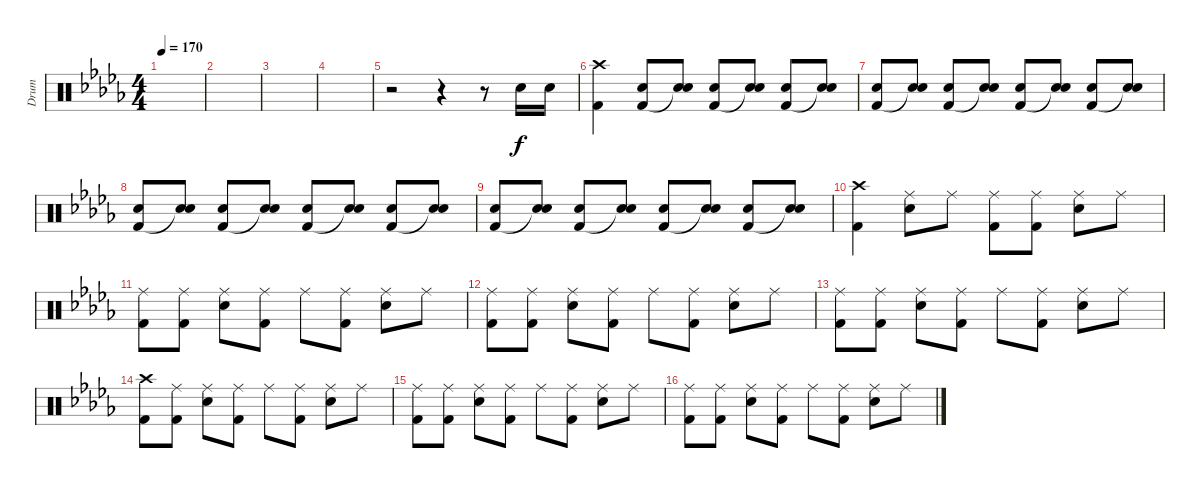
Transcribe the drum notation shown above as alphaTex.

\track ("Drum" "Drum") {instrument percussion}
\staff {score}
\articulation defaults
\ts (4 4)
\tempo 170
\clef neutral
\ks db
|
|
|
|
r.2 r.4 r.8 "Electric Snare (hit)".16 "Electric Snare (hit)".16 |
("Crash high (hit)" "Kick (hit) 2").4 ("Electric Snare (hit)" "Kick (hit) 2").8 ("Electric Snare (hit)" "Snare (hit)"{t}).8 ("Electric Snare (hit)" "Kick (hit) 2").8 ("Electric Snare (hit)" "Snare (hit)"{t}).8 ("Electric Snare (hit)" "Kick (hit) 2").8 ("Electric Snare (hit)" "Snare (hit)"{t}).8 |
("Electric Snare (hit)" "Kick (hit) 2").8 ("Electric Snare (hit)" "Snare (hit)"{t}).8 ("Electric Snare (hit)" "Kick (hit) 2").8 ("Electric Snare (hit)" "Snare (hit)"{t}).8 ("Electric Snare (hit)" "Kick (hit) 2").8 ("Electric Snare (hit)" "Snare (hit)"{t}).8 ("Electric Snare (hit)" "Kick (hit) 2").8 ("Electric Snare (hit)" "Snare (hit)"{t}).8 |
("Electric Snare (hit)" "Kick (hit) 2").8 ("Electric Snare (hit)" "Snare (hit)"{t}).8 ("Electric Snare (hit)" "Kick (hit) 2").8 ("Electric Snare (hit)" "Snare (hit)"{t}).8 ("Electric Snare (hit)" "Kick (hit) 2").8 ("Electric Snare (hit)" "Snare (hit)"{t}).8 ("Electric Snare (hit)" "Kick (hit) 2").8 ("Electric Snare (hit)" "Snare (hit)"{t}).8 |
("Electric Snare (hit)" "Kick (hit) 2").8 ("Electric Snare (hit)" "Snare (hit)"{t}).8 ("Electric Snare (hit)" "Kick (hit) 2").8 ("Electric Snare (hit)" "Snare (hit)"{t}).8 ("Electric Snare (hit)" "Kick (hit) 2").8 ("Electric Snare (hit)" "Snare (hit)"{t}).8 ("Electric Snare (hit)" "Kick (hit) 2").8 ("Electric Snare (hit)" "Snare (hit)"{t}).8 |
("Crash high (hit)" "Kick (hit) 2").4 ("Ride (middle)" "Electric Snare (hit)").8 "Ride (middle)".8 ("Ride (middle)" "Kick (hit) 2").8 ("Ride (middle)" "Kick (hit) 2").8 ("Ride (middle)" "Electric Snare (hit)").8 "Ride (middle)".8 |
("Ride (middle)" "Kick (hit) 2").8 ("Ride (middle)" "Kick (hit) 2").8 ("Ride (middle)" "Electric Snare (hit)").8 ("Ride (middle)" "Kick (hit) 2").8 "Ride (middle)".8 ("Ride (middle)" "Kick (hit) 2").8 ("Ride (middle)" "Electric Snare (hit)").8 "Ride (middle)".8 |
("Ride (middle)" "Kick (hit) 2").8 ("Ride (middle)" "Kick (hit) 2").8 ("Ride (middle)" "Electric Snare (hit)").8 ("Ride (middle)" "Kick (hit) 2").8 "Ride (middle)".8 ("Ride (middle)" "Kick (hit) 2").8 ("Ride (middle)" "Electric Snare (hit)").8 "Ride (middle)".8 |
("Ride (middle)" "Kick (hit) 2").8 ("Ride (middle)" "Kick (hit) 2").8 ("Ride (middle)" "Electric Snare (hit)").8 ("Ride (middle)" "Kick (hit) 2").8 "Ride (middle)".8 ("Ride (middle)" "Kick (hit) 2").8 ("Ride (middle)" "Electric Snare (hit)").8 "Ride (middle)".8 |
("Crash high (hit)" "Kick (hit) 2").8 ("Ride (middle)" "Kick (hit) 2").8 ("Ride (middle)" "Electric Snare (hit)").8 ("Ride (middle)" "Kick (hit) 2").8 "Ride (middle)".8 ("Ride (middle)" "Kick (hit) 2").8 ("Ride (middle)" "Electric Snare (hit)").8 "Ride (middle)".8 |
("Ride (middle)" "Kick (hit) 2").8 ("Ride (middle)" "Kick (hit) 2").8 ("Ride (middle)" "Electric Snare (hit)").8 ("Ride (middle)" "Kick (hit) 2").8 "Ride (middle)".8 ("Ride (middle)" "Kick (hit) 2").8 ("Ride (middle)" "Electric Snare (hit)").8 "Ride (middle)".8 |
("Ride (middle)" "Kick (hit) 2").8 ("Ride (middle)" "Kick (hit) 2").8 ("Ride (middle)" "Electric Snare (hit)").8 ("Ride (middle)" "Kick (hit) 2").8 "Ride (middle)".8 ("Ride (middle)" "Kick (hit) 2").8 ("Ride (middle)" "Electric Snare (hit)").8 "Ride (middle)".8
